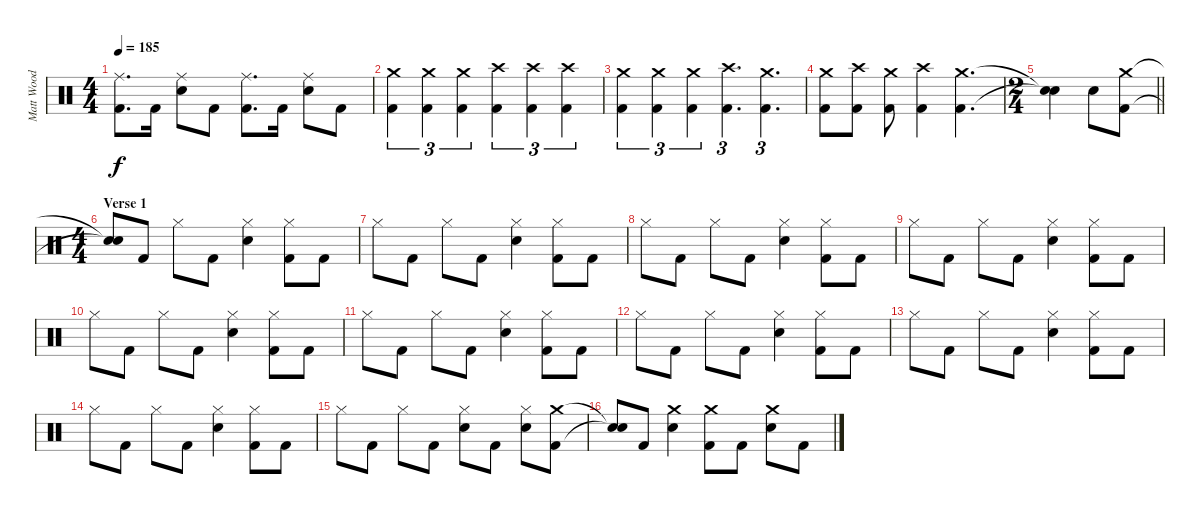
\track ("Matt Wood" "Matt Wood") {instrument percussion}
\staff {score}
\articulation defaults
\ts (4 4)
\tempo 185
\clef neutral
\ks c
("Ride (middle)" "Kick (hit) 2").8{d dy f} "Kick (hit) 2".16 ("Ride (middle)" "Snare (hit) 2").8 "Kick (hit) 2".8 ("Ride (middle)" "Kick (hit) 2").8{d} "Kick (hit) 2".16 ("Ride (middle)" "Snare (hit) 2").8 "Kick (hit) 2".8 |
("Crash medium (hit)" "Kick (hit) 2").4{tu (3 2)} ("Crash medium (hit)" "Kick (hit) 2").4{tu (3 2)} ("Crash medium (hit)" "Kick (hit) 2").4{tu (3 2)} ("Crash high (hit)" "Kick (hit) 2").4{tu (3 2)} ("Crash high (hit)" "Kick (hit) 2").4{tu (3 2)} ("Crash high (hit)" "Kick (hit) 2").4{tu (3 2)} |
("Crash medium (hit)" "Kick (hit) 2").4{tu (3 2)} ("Crash medium (hit)" "Kick (hit) 2").4{tu (3 2)} ("Crash medium (hit)" "Kick (hit) 2").4{tu (3 2)} ("Crash high (hit)" "Kick (hit) 2").4{d tu (3 2)} ("Crash medium (hit)" "Kick (hit) 2").4{d tu (3 2)} |
("Crash medium (hit)" "Kick (hit) 2").8 ("Crash high (hit)" "Kick (hit) 2").8 ("Crash medium (hit)" "Kick (hit) 2").8 ("Crash high (hit)" "Kick (hit) 2").4 ("Crash medium (hit)" "Kick (hit) 2").4{d} |
\ts (2 4)
\barLineRight lightlight
("Snare (hit)"{t} "Snare (hit)"{t}).4 "Snare (hit) 2".8 ("Crash medium (hit)" "Kick (hit) 2").8 |
\ts (4 4)
\section ("" "Verse 1")
("Snare (hit)"{t} "Snare (hit)"{t}).8 "Kick (hit) 2".8 "Hi-Hat (closed)".8 "Kick (hit) 2".8 ("Hi-Hat (closed)" "Snare (hit) 2").4 ("Hi-Hat (closed)" "Kick (hit) 2").8 "Kick (hit) 2".8 |
"Hi-Hat (closed)".8 "Kick (hit) 2".8 "Hi-Hat (closed)".8 "Kick (hit) 2".8 ("Hi-Hat (closed)" "Snare (hit) 2").4 ("Hi-Hat (closed)" "Kick (hit) 2").8 "Kick (hit) 2".8 |
"Hi-Hat (closed)".8 "Kick (hit) 2".8 "Hi-Hat (closed)".8 "Kick (hit) 2".8 ("Hi-Hat (closed)" "Snare (hit) 2").4 ("Hi-Hat (closed)" "Kick (hit) 2").8 "Kick (hit) 2".8 |
"Hi-Hat (closed)".8 "Kick (hit) 2".8 "Hi-Hat (closed)".8 "Kick (hit) 2".8 ("Hi-Hat (closed)" "Snare (hit) 2").4 ("Hi-Hat (closed)" "Kick (hit) 2").8 "Kick (hit) 2".8 |
"Hi-Hat (closed)".8 "Kick (hit) 2".8 "Hi-Hat (closed)".8 "Kick (hit) 2".8 ("Hi-Hat (closed)" "Snare (hit) 2").4 ("Hi-Hat (closed)" "Kick (hit) 2").8 "Kick (hit) 2".8 |
"Hi-Hat (closed)".8 "Kick (hit) 2".8 "Hi-Hat (closed)".8 "Kick (hit) 2".8 ("Hi-Hat (closed)" "Snare (hit) 2").4 ("Hi-Hat (closed)" "Kick (hit) 2").8 "Kick (hit) 2".8 |
"Hi-Hat (closed)".8 "Kick (hit) 2".8 "Hi-Hat (closed)".8 "Kick (hit) 2".8 ("Hi-Hat (closed)" "Snare (hit) 2").4 ("Hi-Hat (closed)" "Kick (hit) 2").8 "Kick (hit) 2".8 |
"Hi-Hat (closed)".8 "Kick (hit) 2".8 "Hi-Hat (closed)".8 "Kick (hit) 2".8 ("Hi-Hat (closed)" "Snare (hit) 2").4 ("Hi-Hat (closed)" "Kick (hit) 2").8 "Kick (hit) 2".8 |
"Hi-Hat (closed)".8 "Kick (hit) 2".8 "Hi-Hat (closed)".8 "Kick (hit) 2".8 ("Hi-Hat (closed)" "Snare (hit) 2").4 ("Hi-Hat (closed)" "Kick (hit) 2").8 "Kick (hit) 2".8 |
"Hi-Hat (closed)".8 "Kick (hit) 2".8 "Hi-Hat (closed)".8 "Kick (hit) 2".8 ("Hi-Hat (closed)" "Snare (hit) 2").8 "Kick (hit) 2".8 ("Hi-Hat (closed)" "Snare (hit) 2").8 ("Crash medium (hit)" "Kick (hit) 2").8 |
("Snare (hit)"{t} "Snare (hit)"{t}).8 "Kick (hit) 2".8 ("Crash medium (hit)" "Snare (hit) 2").4 ("Crash medium (hit)" "Kick (hit) 2").8 "Kick (hit) 2".8 ("Crash medium (hit)" "Snare (hit) 2").8 "Kick (hit) 2".8
